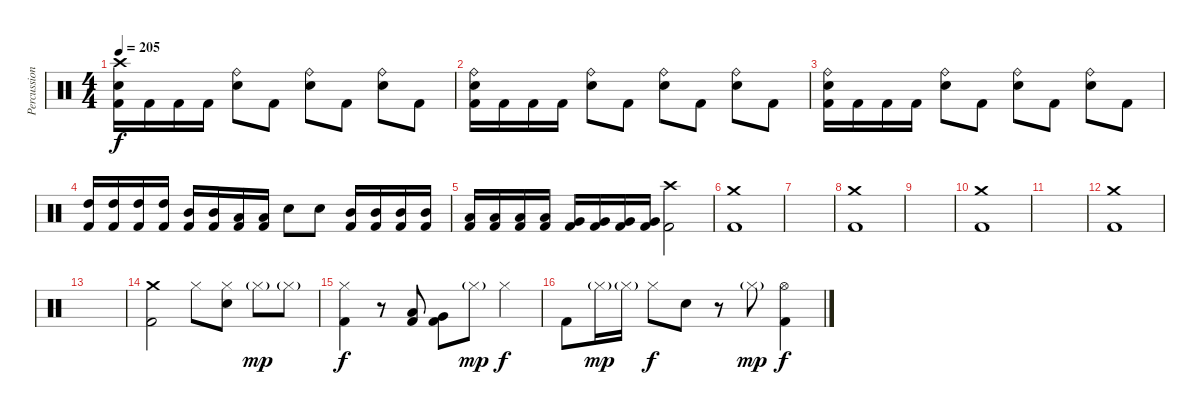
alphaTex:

\track ("Percussions" "Percussion") {instrument percussion}
\staff {score}
\articulation defaults
\ts (4 4)
\tempo 205
\clef neutral
\ks c
("Crash high (hit)" "Electric Snare (hit)" "Kick (hit) 2").16{dy f} "Kick (hit) 2".16 "Kick (hit) 2".16 "Kick (hit) 2".16 ("Ride (bell)" "Electric Snare (hit)").8 "Kick (hit) 2".8 ("Ride (bell)" "Electric Snare (hit)").8 "Kick (hit) 2".8 ("Ride (bell)" "Electric Snare (hit)").8 "Kick (hit) 2".8 |
("Ride (bell)" "Electric Snare (hit)" "Kick (hit) 2").16 "Kick (hit) 2".16 "Kick (hit) 2".16 "Kick (hit) 2".16 ("Ride (bell)" "Electric Snare (hit)").8 "Kick (hit) 2".8 ("Ride (bell)" "Electric Snare (hit)").8 "Kick (hit) 2".8 ("Ride (bell)" "Electric Snare (hit)").8 "Kick (hit) 2".8 |
("Ride (bell)" "Electric Snare (hit)" "Kick (hit) 2").16 "Kick (hit) 2".16 "Kick (hit) 2".16 "Kick (hit) 2".16 ("Ride (bell)" "Electric Snare (hit)").8 "Kick (hit) 2".8 ("Ride (bell)" "Electric Snare (hit)").8 "Kick (hit) 2".8 ("Ride (bell)" "Electric Snare (hit)").8 "Kick (hit) 2".8 |
("High Tom (hit)" "Kick (hit) 2").16 ("High Tom (hit)" "Kick (hit) 2").16 ("High Tom (hit)" "Kick (hit) 2").16 ("High Tom (hit)" "Kick (hit) 2").16 ("Mid Tom (hit)" "Kick (hit) 2").16 ("Mid Tom (hit)" "Kick (hit) 2").16 ("Low Tom (hit)" "Kick (hit) 2").16 ("Low Tom (hit)" "Kick (hit) 2").16 "Electric Snare (hit)".8 "Electric Snare (hit)".8 ("Mid Tom (hit)" "Kick (hit) 2").16 ("Mid Tom (hit)" "Kick (hit) 2").16 ("Mid Tom (hit)" "Kick (hit) 2").16 ("Mid Tom (hit)" "Kick (hit) 2").16 |
("Low Tom (hit)" "Kick (hit) 2").16 ("Low Tom (hit)" "Kick (hit) 2").16 ("Low Tom (hit)" "Kick (hit) 2").16 ("Low Tom (hit)" "Kick (hit) 2").16 ("Very Low Tom (hit)" "Kick (hit) 2").16 ("Very Low Tom (hit)" "Kick (hit) 2").16 ("Very Low Tom (hit)" "Kick (hit) 2").16 ("Very Low Tom (hit)" "Kick (hit) 2").16 ("Crash high (hit)" "Kick (hit) 2").2 |
("Crash medium (hit)" "Kick (hit) 2").1 |
|
("Crash medium (hit)" "Kick (hit) 2").1 |
|
("Crash medium (hit)" "Kick (hit) 2").1 |
|
("Crash medium (hit)" "Kick (hit) 2").1 |
|
("Crash medium (hit)" "Kick (hit) 2").2 "Hi-Hat (closed)".8 ("Hi-Hat (closed)" "Electric Snare (hit)").8 "Hi-Hat (closed)"{g}.8{dy mp} "Hi-Hat (closed)"{g}.8 |
("Hi-Hat (closed)" "Kick (hit) 2").4{dy f} r.8 ("Low Tom (hit)" "Kick (hit) 2").8 ("Very Low Tom (hit)" "Kick (hit) 2").8 "Hi-Hat (closed)"{g}.8{dy mp} "Hi-Hat (closed)".4{dy f} |
"Kick (hit) 2".8 "Hi-Hat (closed)"{g}.16{dy mp} "Hi-Hat (closed)"{g}.16 "Hi-Hat (closed)".8{dy f} "Electric Snare (hit)".8 r.8 "Hi-Hat (closed)"{g}.8{dy mp} ("Hi-Hat (open)" "Kick (hit) 2").4{dy f}
